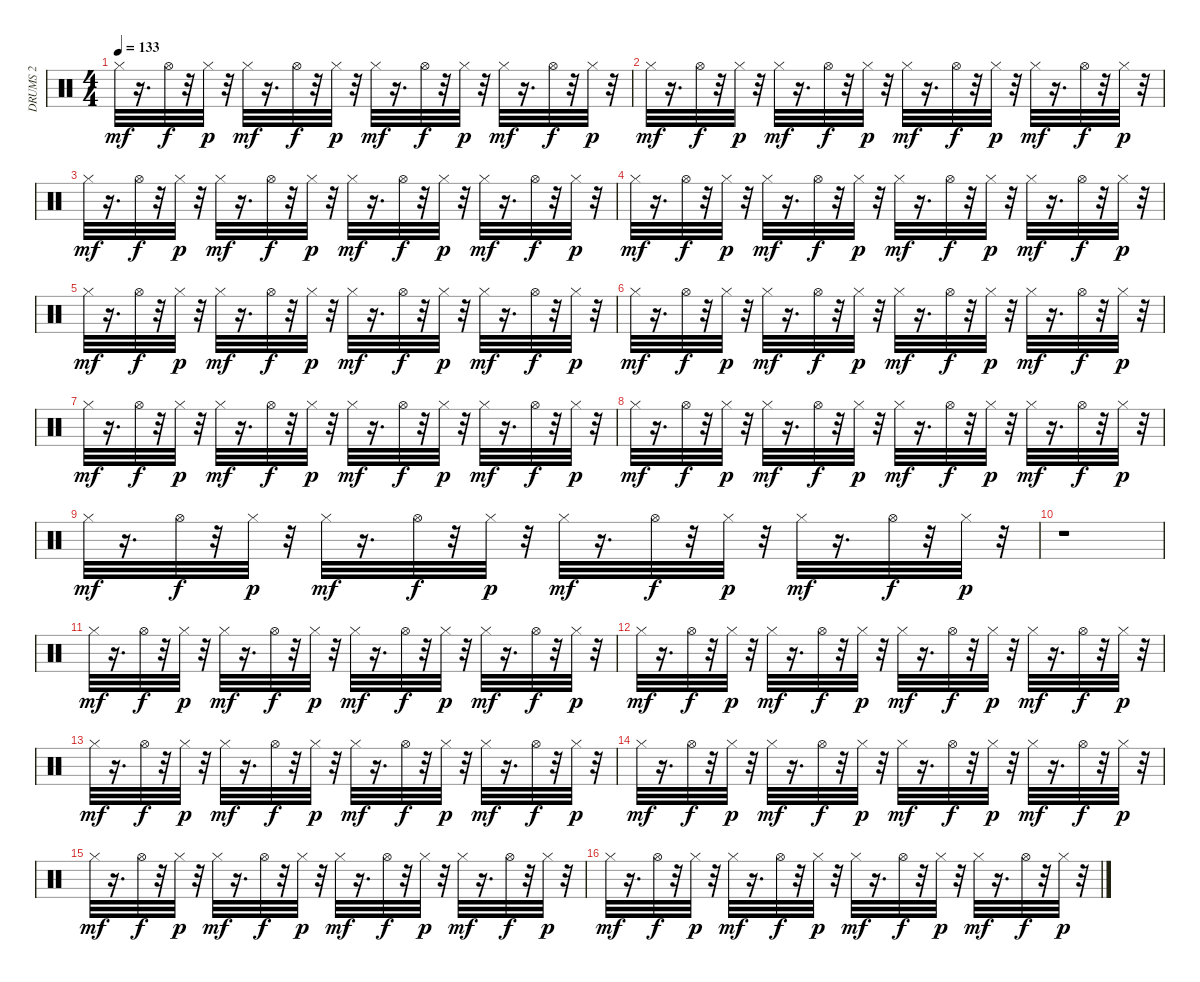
\track ("DRUMS 2                             " "DRUMS 2   ") {instrument percussion}
\staff {score}
\articulation defaults
\ts (4 4)
\tempo 133
\clef neutral
\ks c "Hi-Hat (closed)".32{dy mf}
r.16{d} "Hi-Hat (open)".32{dy f} r.32 "Hi-Hat (closed)".32{dy p} r.32 "Hi-Hat (closed)".32{dy mf} r.16{d} "Hi-Hat (open)".32{dy f} r.32 "Hi-Hat (closed)".32{dy p} r.32 "Hi-Hat (closed)".32{dy mf} r.16{d} "Hi-Hat (open)".32{dy f} r.32 "Hi-Hat (closed)".32{dy p} r.32 "Hi-Hat (closed)".32{dy mf} r.16{d} "Hi-Hat (open)".32{dy f} r.32 "Hi-Hat (closed)".32{dy p} r.32 |
"Hi-Hat (closed)".32{dy mf} r.16{d} "Hi-Hat (open)".32{dy f} r.32 "Hi-Hat (closed)".32{dy p} r.32 "Hi-Hat (closed)".32{dy mf} r.16{d} "Hi-Hat (open)".32{dy f} r.32 "Hi-Hat (closed)".32{dy p} r.32 "Hi-Hat (closed)".32{dy mf} r.16{d} "Hi-Hat (open)".32{dy f} r.32 "Hi-Hat (closed)".32{dy p} r.32 "Hi-Hat (closed)".32{dy mf} r.16{d} "Hi-Hat (open)".32{dy f} r.32 "Hi-Hat (closed)".32{dy p} r.32 |
"Hi-Hat (closed)".32{dy mf} r.16{d} "Hi-Hat (open)".32{dy f} r.32 "Hi-Hat (closed)".32{dy p} r.32 "Hi-Hat (closed)".32{dy mf} r.16{d} "Hi-Hat (open)".32{dy f} r.32 "Hi-Hat (closed)".32{dy p} r.32 "Hi-Hat (closed)".32{dy mf} r.16{d} "Hi-Hat (open)".32{dy f} r.32 "Hi-Hat (closed)".32{dy p} r.32 "Hi-Hat (closed)".32{dy mf} r.16{d} "Hi-Hat (open)".32{dy f} r.32 "Hi-Hat (closed)".32{dy p} r.32 |
"Hi-Hat (closed)".32{dy mf} r.16{d} "Hi-Hat (open)".32{dy f} r.32 "Hi-Hat (closed)".32{dy p} r.32 "Hi-Hat (closed)".32{dy mf} r.16{d} "Hi-Hat (open)".32{dy f} r.32 "Hi-Hat (closed)".32{dy p} r.32 "Hi-Hat (closed)".32{dy mf} r.16{d} "Hi-Hat (open)".32{dy f} r.32 "Hi-Hat (closed)".32{dy p} r.32 "Hi-Hat (closed)".32{dy mf} r.16{d} "Hi-Hat (open)".32{dy f} r.32 "Hi-Hat (closed)".32{dy p} r.32 |
"Hi-Hat (closed)".32{dy mf} r.16{d} "Hi-Hat (open)".32{dy f} r.32 "Hi-Hat (closed)".32{dy p} r.32 "Hi-Hat (closed)".32{dy mf} r.16{d} "Hi-Hat (open)".32{dy f} r.32 "Hi-Hat (closed)".32{dy p} r.32 "Hi-Hat (closed)".32{dy mf} r.16{d} "Hi-Hat (open)".32{dy f} r.32 "Hi-Hat (closed)".32{dy p} r.32 "Hi-Hat (closed)".32{dy mf} r.16{d} "Hi-Hat (open)".32{dy f} r.32 "Hi-Hat (closed)".32{dy p} r.32 |
"Hi-Hat (closed)".32{dy mf} r.16{d} "Hi-Hat (open)".32{dy f} r.32 "Hi-Hat (closed)".32{dy p} r.32 "Hi-Hat (closed)".32{dy mf} r.16{d} "Hi-Hat (open)".32{dy f} r.32 "Hi-Hat (closed)".32{dy p} r.32 "Hi-Hat (closed)".32{dy mf} r.16{d} "Hi-Hat (open)".32{dy f} r.32 "Hi-Hat (closed)".32{dy p} r.32 "Hi-Hat (closed)".32{dy mf} r.16{d} "Hi-Hat (open)".32{dy f} r.32 "Hi-Hat (closed)".32{dy p} r.32 |
"Hi-Hat (closed)".32{dy mf} r.16{d} "Hi-Hat (open)".32{dy f} r.32 "Hi-Hat (closed)".32{dy p} r.32 "Hi-Hat (closed)".32{dy mf} r.16{d} "Hi-Hat (open)".32{dy f} r.32 "Hi-Hat (closed)".32{dy p} r.32 "Hi-Hat (closed)".32{dy mf} r.16{d} "Hi-Hat (open)".32{dy f} r.32 "Hi-Hat (closed)".32{dy p} r.32 "Hi-Hat (closed)".32{dy mf} r.16{d} "Hi-Hat (open)".32{dy f} r.32 "Hi-Hat (closed)".32{dy p} r.32 |
"Hi-Hat (closed)".32{dy mf} r.16{d} "Hi-Hat (open)".32{dy f} r.32 "Hi-Hat (closed)".32{dy p} r.32 "Hi-Hat (closed)".32{dy mf} r.16{d} "Hi-Hat (open)".32{dy f} r.32 "Hi-Hat (closed)".32{dy p} r.32 "Hi-Hat (closed)".32{dy mf} r.16{d} "Hi-Hat (open)".32{dy f} r.32 "Hi-Hat (closed)".32{dy p} r.32 "Hi-Hat (closed)".32{dy mf} r.16{d} "Hi-Hat (open)".32{dy f} r.32 "Hi-Hat (closed)".32{dy p} r.32 |
"Hi-Hat (closed)".32{dy mf} r.16{d} "Hi-Hat (open)".32{dy f} r.32 "Hi-Hat (closed)".32{dy p} r.32 "Hi-Hat (closed)".32{dy mf} r.16{d} "Hi-Hat (open)".32{dy f} r.32 "Hi-Hat (closed)".32{dy p} r.32 "Hi-Hat (closed)".32{dy mf} r.16{d} "Hi-Hat (open)".32{dy f} r.32 "Hi-Hat (closed)".32{dy p} r.32 "Hi-Hat (closed)".32{dy mf} r.16{d} "Hi-Hat (open)".32{dy f} r.32 "Hi-Hat (closed)".32{dy p} r.32 |
r.1 |
"Hi-Hat (closed)".32{dy mf} r.16{d} "Hi-Hat (open)".32{dy f} r.32 "Hi-Hat (closed)".32{dy p} r.32 "Hi-Hat (closed)".32{dy mf} r.16{d} "Hi-Hat (open)".32{dy f} r.32 "Hi-Hat (closed)".32{dy p} r.32 "Hi-Hat (closed)".32{dy mf} r.16{d} "Hi-Hat (open)".32{dy f} r.32 "Hi-Hat (closed)".32{dy p} r.32 "Hi-Hat (closed)".32{dy mf} r.16{d} "Hi-Hat (open)".32{dy f} r.32 "Hi-Hat (closed)".32{dy p} r.32 |
"Hi-Hat (closed)".32{dy mf} r.16{d} "Hi-Hat (open)".32{dy f} r.32 "Hi-Hat (closed)".32{dy p} r.32 "Hi-Hat (closed)".32{dy mf} r.16{d} "Hi-Hat (open)".32{dy f} r.32 "Hi-Hat (closed)".32{dy p} r.32 "Hi-Hat (closed)".32{dy mf} r.16{d} "Hi-Hat (open)".32{dy f} r.32 "Hi-Hat (closed)".32{dy p} r.32 "Hi-Hat (closed)".32{dy mf} r.16{d} "Hi-Hat (open)".32{dy f} r.32 "Hi-Hat (closed)".32{dy p} r.32 |
"Hi-Hat (closed)".32{dy mf} r.16{d} "Hi-Hat (open)".32{dy f} r.32 "Hi-Hat (closed)".32{dy p} r.32 "Hi-Hat (closed)".32{dy mf} r.16{d} "Hi-Hat (open)".32{dy f} r.32 "Hi-Hat (closed)".32{dy p} r.32 "Hi-Hat (closed)".32{dy mf} r.16{d} "Hi-Hat (open)".32{dy f} r.32 "Hi-Hat (closed)".32{dy p} r.32 "Hi-Hat (closed)".32{dy mf} r.16{d} "Hi-Hat (open)".32{dy f} r.32 "Hi-Hat (closed)".32{dy p} r.32 |
"Hi-Hat (closed)".32{dy mf} r.16{d} "Hi-Hat (open)".32{dy f} r.32 "Hi-Hat (closed)".32{dy p} r.32 "Hi-Hat (closed)".32{dy mf} r.16{d} "Hi-Hat (open)".32{dy f} r.32 "Hi-Hat (closed)".32{dy p} r.32 "Hi-Hat (closed)".32{dy mf} r.16{d} "Hi-Hat (open)".32{dy f} r.32 "Hi-Hat (closed)".32{dy p} r.32 "Hi-Hat (closed)".32{dy mf} r.16{d} "Hi-Hat (open)".32{dy f} r.32 "Hi-Hat (closed)".32{dy p} r.32 |
"Hi-Hat (closed)".32{dy mf} r.16{d} "Hi-Hat (open)".32{dy f} r.32 "Hi-Hat (closed)".32{dy p} r.32 "Hi-Hat (closed)".32{dy mf} r.16{d} "Hi-Hat (open)".32{dy f} r.32 "Hi-Hat (closed)".32{dy p} r.32 "Hi-Hat (closed)".32{dy mf} r.16{d} "Hi-Hat (open)".32{dy f} r.32 "Hi-Hat (closed)".32{dy p} r.32 "Hi-Hat (closed)".32{dy mf} r.16{d} "Hi-Hat (open)".32{dy f} r.32 "Hi-Hat (closed)".32{dy p} r.32 |
"Hi-Hat (closed)".32{dy mf} r.16{d} "Hi-Hat (open)".32{dy f} r.32 "Hi-Hat (closed)".32{dy p} r.32 "Hi-Hat (closed)".32{dy mf} r.16{d} "Hi-Hat (open)".32{dy f} r.32 "Hi-Hat (closed)".32{dy p} r.32 "Hi-Hat (closed)".32{dy mf} r.16{d} "Hi-Hat (open)".32{dy f} r.32 "Hi-Hat (closed)".32{dy p} r.32 "Hi-Hat (closed)".32{dy mf} r.16{d} "Hi-Hat (open)".32{dy f} r.32 "Hi-Hat (closed)".32{dy p} r.32
